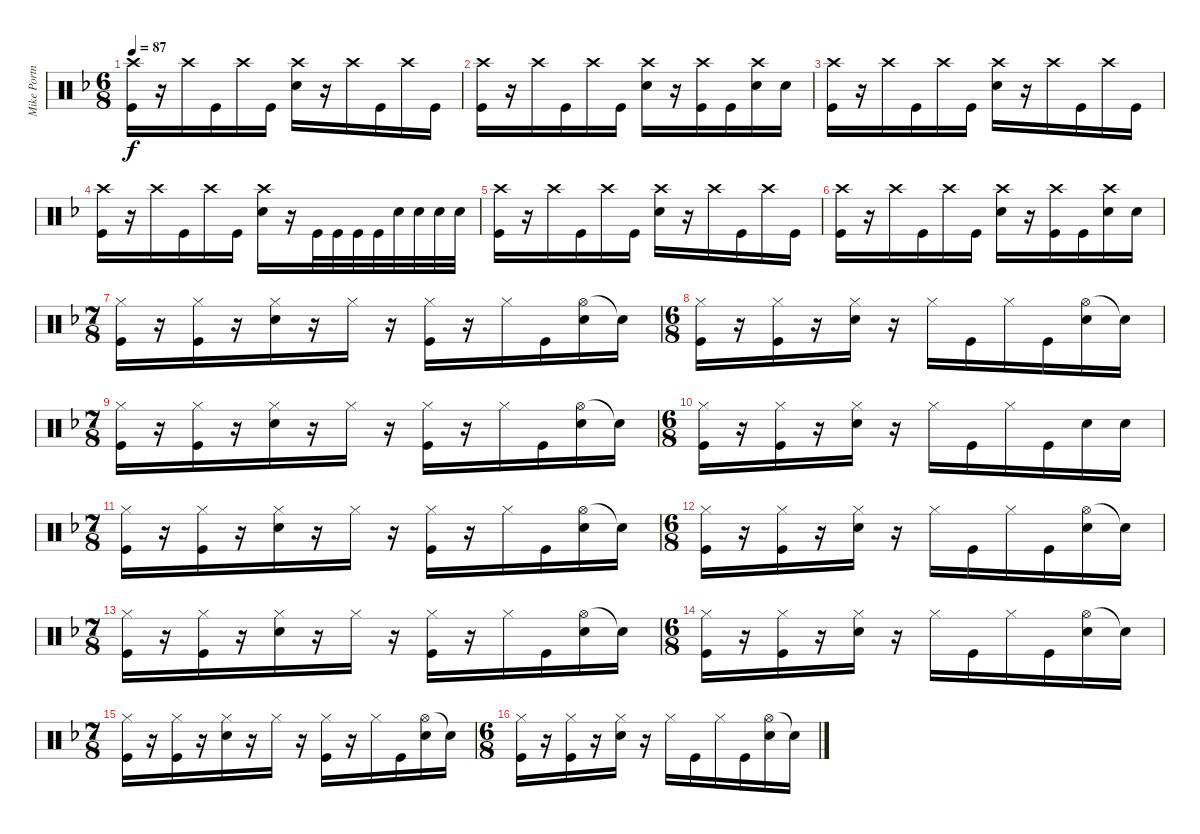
\track ("Mike Portnoy - Drums" "Mike Portn") {instrument percussion}
\staff {score}
\articulation defaults
\ts (6 8)
\tempo 87
\clef neutral
\ks dminor
("Crash high (hit)" "Kick (hit)").16{dy f} r.16 "Crash high (hit)".16 "Kick (hit)".16 "Crash high (hit)".16 "Kick (hit)".16 ("Crash high (hit)" "Snare (hit) 2").16 r.16 "Crash high (hit)".16 "Kick (hit)".16 "Crash high (hit)".16 "Kick (hit)".16 |
("Crash high (hit)" "Kick (hit)").16 r.16 "Crash high (hit)".16 "Kick (hit)".16 "Crash high (hit)".16 "Kick (hit)".16 ("Crash high (hit)" "Snare (hit) 2").16 r.16 ("Crash high (hit)" "Kick (hit)").16 "Kick (hit)".16 ("Crash high (hit)" "Snare (hit) 2").16 "Snare (hit) 2".16 |
("Crash high (hit)" "Kick (hit)").16 r.16 "Crash high (hit)".16 "Kick (hit)".16 "Crash high (hit)".16 "Kick (hit)".16 ("Crash high (hit)" "Snare (hit) 2").16 r.16 "Crash high (hit)".16 "Kick (hit)".16 "Crash high (hit)".16 "Kick (hit)".16 |
("Crash high (hit)" "Kick (hit)").16 r.16 "Crash high (hit)".16 "Kick (hit)".16 "Crash high (hit)".16 "Kick (hit)".16 ("Crash high (hit)" "Snare (hit) 2").16 r.16 "Kick (hit)".32 "Kick (hit)".32 "Kick (hit)".32 "Kick (hit)".32 "Snare (hit) 2".32 "Snare (hit) 2".32 "Snare (hit) 2".32 "Snare (hit) 2".32 |
("Crash high (hit)" "Kick (hit)").16 r.16 "Crash high (hit)".16 "Kick (hit)".16 "Crash high (hit)".16 "Kick (hit)".16 ("Crash high (hit)" "Snare (hit) 2").16 r.16 "Crash high (hit)".16 "Kick (hit)".16 "Crash high (hit)".16 "Kick (hit)".16 |
("Crash high (hit)" "Kick (hit)").16 r.16 "Crash high (hit)".16 "Kick (hit)".16 "Crash high (hit)".16 "Kick (hit)".16 ("Crash high (hit)" "Snare (hit) 2").16 r.16 ("Crash high (hit)" "Kick (hit)").16 "Kick (hit)".16 ("Crash high (hit)" "Snare (hit) 2").16 "Snare (hit) 2".16 |
\ts (7 8)
("Hi-Hat (closed)" "Kick (hit)").16 r.16 ("Hi-Hat (closed)" "Kick (hit)").16 r.16 ("Hi-Hat (closed)" "Snare (hit) 2").16 r.16 "Hi-Hat (closed)".16 r.16 ("Hi-Hat (closed)" "Kick (hit)").16 r.16 "Hi-Hat (closed)".16 "Kick (hit)".16 ("Hi-Hat (open)" "Snare (hit) 2").16 "Snare (hit)"{t}.16 |
\ts (6 8)
("Hi-Hat (closed)" "Kick (hit)").16 r.16 ("Hi-Hat (closed)" "Kick (hit)").16 r.16 ("Hi-Hat (closed)" "Snare (hit) 2").16 r.16 "Hi-Hat (closed)".16 "Kick (hit)".16 "Hi-Hat (closed)".16 "Kick (hit)".16 ("Hi-Hat (open)" "Snare (hit) 2").16 "Snare (hit)"{t}.16 |
\ts (7 8)
("Hi-Hat (closed)" "Kick (hit)").16 r.16 ("Hi-Hat (closed)" "Kick (hit)").16 r.16 ("Hi-Hat (closed)" "Snare (hit) 2").16 r.16 "Hi-Hat (closed)".16 r.16 ("Hi-Hat (closed)" "Kick (hit)").16 r.16 "Hi-Hat (closed)".16 "Kick (hit)".16 ("Hi-Hat (open)" "Snare (hit) 2").16 "Snare (hit)"{t}.16 |
\ts (6 8)
("Hi-Hat (closed)" "Kick (hit)").16 r.16 ("Hi-Hat (closed)" "Kick (hit)").16 r.16 ("Hi-Hat (closed)" "Snare (hit) 2").16 r.16 "Hi-Hat (closed)".16 "Kick (hit)".16 "Hi-Hat (closed)".16 "Kick (hit)".16 "Snare (hit) 2".16 "Snare (hit) 2".16 |
\ts (7 8)
("Hi-Hat (closed)" "Kick (hit)").16 r.16 ("Hi-Hat (closed)" "Kick (hit)").16 r.16 ("Hi-Hat (closed)" "Snare (hit) 2").16 r.16 "Hi-Hat (closed)".16 r.16 ("Hi-Hat (closed)" "Kick (hit)").16 r.16 "Hi-Hat (closed)".16 "Kick (hit)".16 ("Hi-Hat (open)" "Snare (hit) 2").16 "Snare (hit)"{t}.16 |
\ts (6 8)
("Hi-Hat (closed)" "Kick (hit)").16 r.16 ("Hi-Hat (closed)" "Kick (hit)").16 r.16 ("Hi-Hat (closed)" "Snare (hit) 2").16 r.16 "Hi-Hat (closed)".16 "Kick (hit)".16 "Hi-Hat (closed)".16 "Kick (hit)".16 ("Hi-Hat (open)" "Snare (hit) 2").16 "Snare (hit)"{t}.16 |
\ts (7 8)
("Hi-Hat (closed)" "Kick (hit)").16 r.16 ("Hi-Hat (closed)" "Kick (hit)").16 r.16 ("Hi-Hat (closed)" "Snare (hit) 2").16 r.16 "Hi-Hat (closed)".16 r.16 ("Hi-Hat (closed)" "Kick (hit)").16 r.16 "Hi-Hat (closed)".16 "Kick (hit)".16 ("Hi-Hat (open)" "Snare (hit) 2").16 "Snare (hit)"{t}.16 |
\ts (6 8)
("Hi-Hat (closed)" "Kick (hit)").16 r.16 ("Hi-Hat (closed)" "Kick (hit)").16 r.16 ("Hi-Hat (closed)" "Snare (hit) 2").16 r.16 "Hi-Hat (closed)".16 "Kick (hit)".16 "Hi-Hat (closed)".16 "Kick (hit)".16 ("Hi-Hat (open)" "Snare (hit) 2").16 "Snare (hit)"{t}.16 |
\ts (7 8)
("Hi-Hat (closed)" "Kick (hit)").16 r.16 ("Hi-Hat (closed)" "Kick (hit)").16 r.16 ("Hi-Hat (closed)" "Snare (hit) 2").16 r.16 "Hi-Hat (closed)".16 r.16 ("Hi-Hat (closed)" "Kick (hit)").16 r.16 "Hi-Hat (closed)".16 "Kick (hit)".16 ("Hi-Hat (open)" "Snare (hit) 2").16 "Snare (hit)"{t}.16 |
\ts (6 8)
("Hi-Hat (closed)" "Kick (hit)").16 r.16 ("Hi-Hat (closed)" "Kick (hit)").16 r.16 ("Hi-Hat (closed)" "Snare (hit) 2").16 r.16 "Hi-Hat (closed)".16 "Kick (hit)".16 "Hi-Hat (closed)".16 "Kick (hit)".16 ("Hi-Hat (open)" "Snare (hit) 2").16 "Snare (hit)"{t}.16
